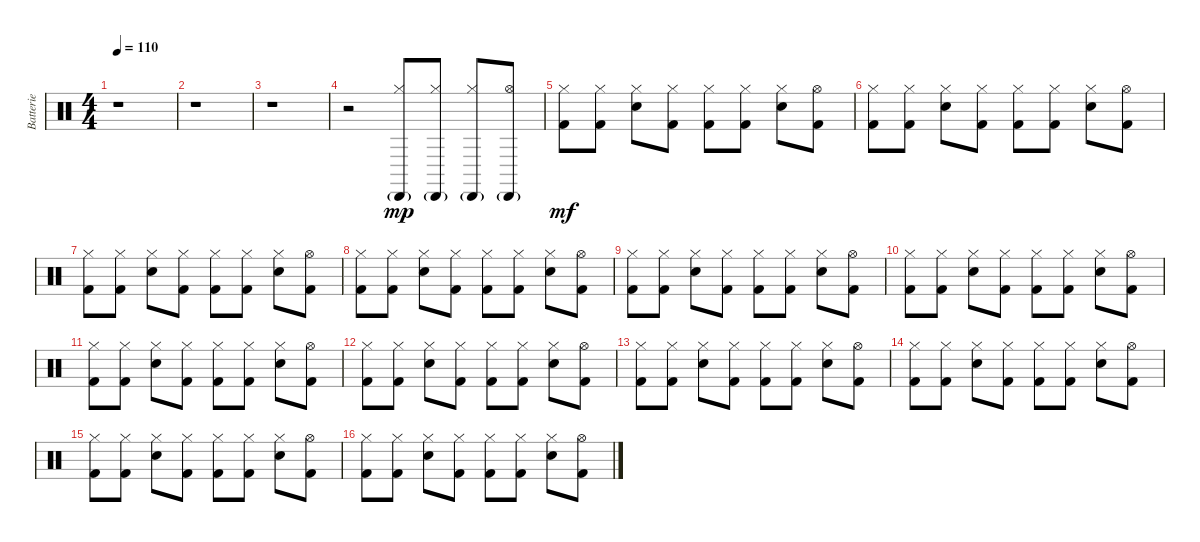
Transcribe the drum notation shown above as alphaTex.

\track ("Batterie" "Batterie") {instrument percussion}
\staff {score}
\articulation defaults
\ts (4 4)
\tempo 110
\clef neutral
\ks c
r.1{dy mf} |
r.1 |
r.1 |
r.2 ("Hi-Hat (closed)" "Cabasa (hit)"{g}).8{dy mp} ("Hi-Hat (closed)" "Cabasa (hit)"{g}).8 ("Hi-Hat (closed)" "Cabasa (hit)"{g}).8 ("Hi-Hat (open)" "Cabasa (hit)"{g}).8 |
("Hi-Hat (closed)" "Kick (hit) 2").8{dy mf} ("Hi-Hat (closed)" "Kick (hit) 2").8 ("Hi-Hat (closed)" "Electric Snare (hit)").8 ("Hi-Hat (closed)" "Kick (hit) 2").8 ("Hi-Hat (closed)" "Kick (hit) 2").8 ("Hi-Hat (closed)" "Kick (hit) 2").8 ("Hi-Hat (closed)" "Electric Snare (hit)").8 ("Hi-Hat (open)" "Kick (hit) 2").8 |
("Hi-Hat (closed)" "Kick (hit) 2").8 ("Hi-Hat (closed)" "Kick (hit) 2").8 ("Hi-Hat (closed)" "Electric Snare (hit)").8 ("Hi-Hat (closed)" "Kick (hit) 2").8 ("Hi-Hat (closed)" "Kick (hit) 2").8 ("Hi-Hat (closed)" "Kick (hit) 2").8 ("Hi-Hat (closed)" "Electric Snare (hit)").8 ("Hi-Hat (open)" "Kick (hit) 2").8 |
("Hi-Hat (closed)" "Kick (hit) 2").8 ("Hi-Hat (closed)" "Kick (hit) 2").8 ("Hi-Hat (closed)" "Electric Snare (hit)").8 ("Hi-Hat (closed)" "Kick (hit) 2").8 ("Hi-Hat (closed)" "Kick (hit) 2").8 ("Hi-Hat (closed)" "Kick (hit) 2").8 ("Hi-Hat (closed)" "Electric Snare (hit)").8 ("Hi-Hat (open)" "Kick (hit) 2").8 |
("Hi-Hat (closed)" "Kick (hit) 2").8 ("Hi-Hat (closed)" "Kick (hit) 2").8 ("Hi-Hat (closed)" "Electric Snare (hit)").8 ("Hi-Hat (closed)" "Kick (hit) 2").8 ("Hi-Hat (closed)" "Kick (hit) 2").8 ("Hi-Hat (closed)" "Kick (hit) 2").8 ("Hi-Hat (closed)" "Electric Snare (hit)").8 ("Hi-Hat (open)" "Kick (hit) 2").8 |
("Hi-Hat (closed)" "Kick (hit) 2").8 ("Hi-Hat (closed)" "Kick (hit) 2").8 ("Hi-Hat (closed)" "Electric Snare (hit)").8 ("Hi-Hat (closed)" "Kick (hit) 2").8 ("Hi-Hat (closed)" "Kick (hit) 2").8 ("Hi-Hat (closed)" "Kick (hit) 2").8 ("Hi-Hat (closed)" "Electric Snare (hit)").8 ("Hi-Hat (open)" "Kick (hit) 2").8 |
("Hi-Hat (closed)" "Kick (hit) 2").8 ("Hi-Hat (closed)" "Kick (hit) 2").8 ("Hi-Hat (closed)" "Electric Snare (hit)").8 ("Hi-Hat (closed)" "Kick (hit) 2").8 ("Hi-Hat (closed)" "Kick (hit) 2").8 ("Hi-Hat (closed)" "Kick (hit) 2").8 ("Hi-Hat (closed)" "Electric Snare (hit)").8 ("Hi-Hat (open)" "Kick (hit) 2").8 |
("Hi-Hat (closed)" "Kick (hit) 2").8 ("Hi-Hat (closed)" "Kick (hit) 2").8 ("Hi-Hat (closed)" "Electric Snare (hit)").8 ("Hi-Hat (closed)" "Kick (hit) 2").8 ("Hi-Hat (closed)" "Kick (hit) 2").8 ("Hi-Hat (closed)" "Kick (hit) 2").8 ("Hi-Hat (closed)" "Electric Snare (hit)").8 ("Hi-Hat (open)" "Kick (hit) 2").8 |
("Hi-Hat (closed)" "Kick (hit) 2").8 ("Hi-Hat (closed)" "Kick (hit) 2").8 ("Hi-Hat (closed)" "Electric Snare (hit)").8 ("Hi-Hat (closed)" "Kick (hit) 2").8 ("Hi-Hat (closed)" "Kick (hit) 2").8 ("Hi-Hat (closed)" "Kick (hit) 2").8 ("Hi-Hat (closed)" "Electric Snare (hit)").8 ("Hi-Hat (open)" "Kick (hit) 2").8 |
("Hi-Hat (closed)" "Kick (hit) 2").8 ("Hi-Hat (closed)" "Kick (hit) 2").8 ("Hi-Hat (closed)" "Electric Snare (hit)").8 ("Hi-Hat (closed)" "Kick (hit) 2").8 ("Hi-Hat (closed)" "Kick (hit) 2").8 ("Hi-Hat (closed)" "Kick (hit) 2").8 ("Hi-Hat (closed)" "Electric Snare (hit)").8 ("Hi-Hat (open)" "Kick (hit) 2").8 |
("Hi-Hat (closed)" "Kick (hit) 2").8 ("Hi-Hat (closed)" "Kick (hit) 2").8 ("Hi-Hat (closed)" "Electric Snare (hit)").8 ("Hi-Hat (closed)" "Kick (hit) 2").8 ("Hi-Hat (closed)" "Kick (hit) 2").8 ("Hi-Hat (closed)" "Kick (hit) 2").8 ("Hi-Hat (closed)" "Electric Snare (hit)").8 ("Hi-Hat (open)" "Kick (hit) 2").8 |
("Hi-Hat (closed)" "Kick (hit) 2").8 ("Hi-Hat (closed)" "Kick (hit) 2").8 ("Hi-Hat (closed)" "Electric Snare (hit)").8 ("Hi-Hat (closed)" "Kick (hit) 2").8 ("Hi-Hat (closed)" "Kick (hit) 2").8 ("Hi-Hat (closed)" "Kick (hit) 2").8 ("Hi-Hat (closed)" "Electric Snare (hit)").8 ("Hi-Hat (open)" "Kick (hit) 2").8 |
("Hi-Hat (closed)" "Kick (hit) 2").8 ("Hi-Hat (closed)" "Kick (hit) 2").8 ("Hi-Hat (closed)" "Electric Snare (hit)").8 ("Hi-Hat (closed)" "Kick (hit) 2").8 ("Hi-Hat (closed)" "Kick (hit) 2").8 ("Hi-Hat (closed)" "Kick (hit) 2").8 ("Hi-Hat (closed)" "Electric Snare (hit)").8 ("Hi-Hat (open)" "Kick (hit) 2").8
